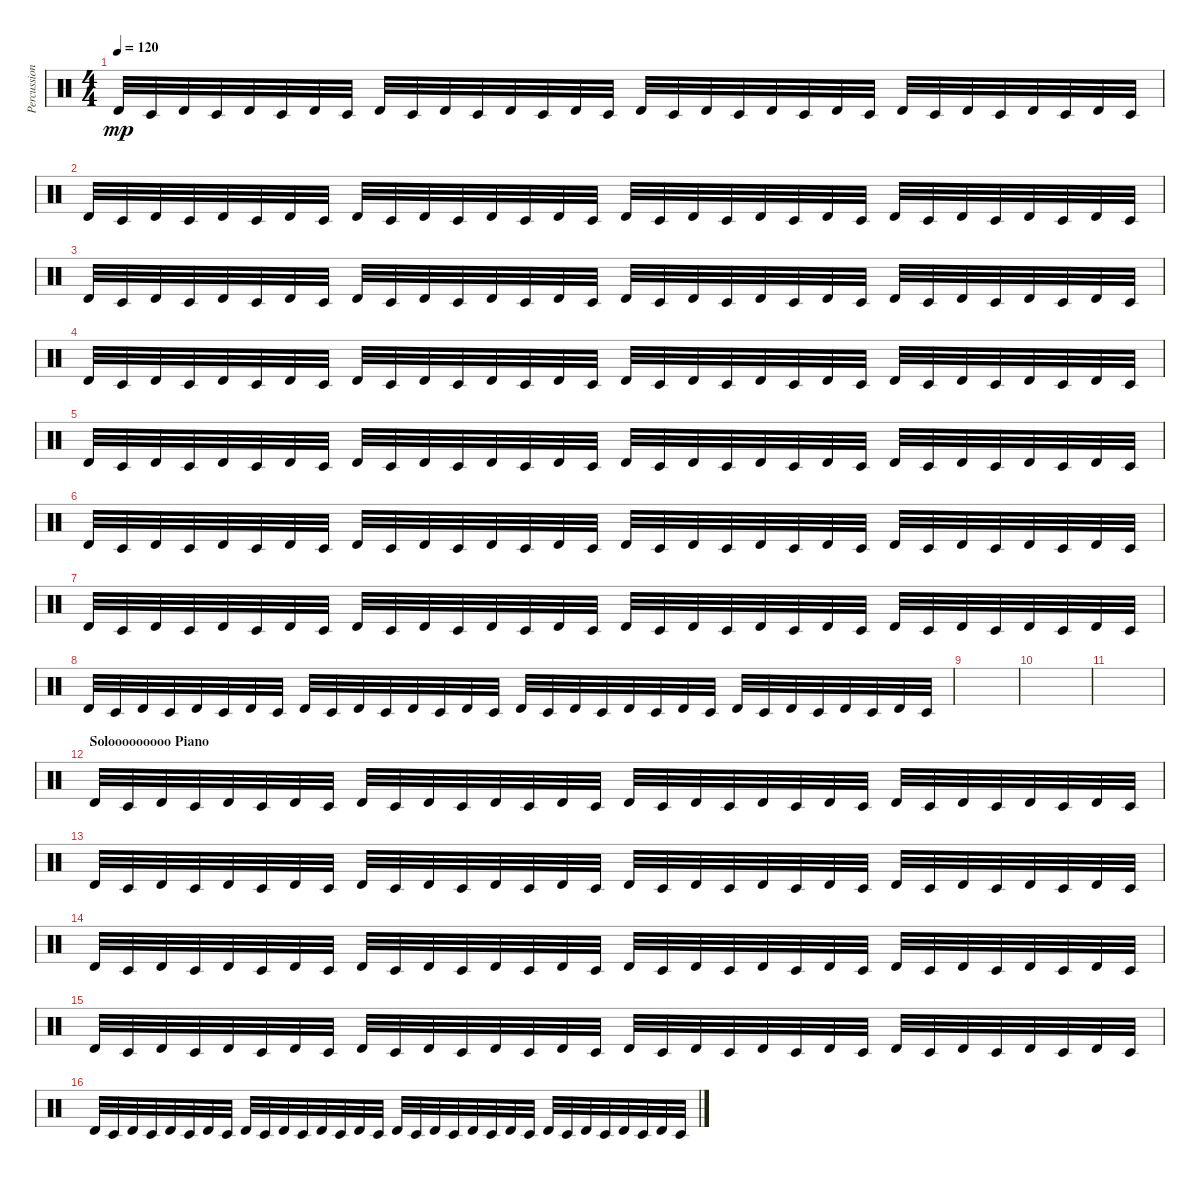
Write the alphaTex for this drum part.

\track ("Percussion" "Percussion") {instrument percussion}
\staff {score}
\articulation defaults
\ts (4 4)
\tempo 120
\clef neutral
\ks c "Timbale high (hit)".32{dy mp} "Timbale low (hit)".32 "Timbale high (hit)".32 "Timbale low (hit)".32 "Timbale high (hit)".32 "Timbale low (hit)".32 "Timbale high (hit)".32 "Timbale low (hit)".32 "Timbale high (hit)".32 "Timbale low (hit)".32 "Timbale high (hit)".32 "Timbale low (hit)".32 "Timbale high (hit)".32 "Timbale low (hit)".32 "Timbale high (hit)".32 "Timbale low (hit)".32 "Timbale high (hit)".32 "Timbale low (hit)".32 "Timbale high (hit)".32 "Timbale low (hit)".32 "Timbale high (hit)".32 "Timbale low (hit)".32 "Timbale high (hit)".32 "Timbale low (hit)".32 "Timbale high (hit)".32 "Timbale low (hit)".32 "Timbale high (hit)".32 "Timbale low (hit)".32 "Timbale high (hit)".32 "Timbale low (hit)".32 "Timbale high (hit)".32 "Timbale low (hit)".32
|
"Timbale high (hit)".32 "Timbale low (hit)".32 "Timbale high (hit)".32 "Timbale low (hit)".32 "Timbale high (hit)".32 "Timbale low (hit)".32 "Timbale high (hit)".32 "Timbale low (hit)".32 "Timbale high (hit)".32 "Timbale low (hit)".32 "Timbale high (hit)".32 "Timbale low (hit)".32 "Timbale high (hit)".32 "Timbale low (hit)".32 "Timbale high (hit)".32 "Timbale low (hit)".32 "Timbale high (hit)".32 "Timbale low (hit)".32 "Timbale high (hit)".32 "Timbale low (hit)".32 "Timbale high (hit)".32 "Timbale low (hit)".32 "Timbale high (hit)".32 "Timbale low (hit)".32 "Timbale high (hit)".32 "Timbale low (hit)".32 "Timbale high (hit)".32 "Timbale low (hit)".32 "Timbale high (hit)".32 "Timbale low (hit)".32 "Timbale high (hit)".32 "Timbale low (hit)".32 |
"Timbale high (hit)".32 "Timbale low (hit)".32 "Timbale high (hit)".32 "Timbale low (hit)".32 "Timbale high (hit)".32 "Timbale low (hit)".32 "Timbale high (hit)".32 "Timbale low (hit)".32 "Timbale high (hit)".32 "Timbale low (hit)".32 "Timbale high (hit)".32 "Timbale low (hit)".32 "Timbale high (hit)".32 "Timbale low (hit)".32 "Timbale high (hit)".32 "Timbale low (hit)".32 "Timbale high (hit)".32 "Timbale low (hit)".32 "Timbale high (hit)".32 "Timbale low (hit)".32 "Timbale high (hit)".32 "Timbale low (hit)".32 "Timbale high (hit)".32 "Timbale low (hit)".32 "Timbale high (hit)".32 "Timbale low (hit)".32 "Timbale high (hit)".32 "Timbale low (hit)".32 "Timbale high (hit)".32 "Timbale low (hit)".32 "Timbale high (hit)".32 "Timbale low (hit)".32 |
"Timbale high (hit)".32 "Timbale low (hit)".32 "Timbale high (hit)".32 "Timbale low (hit)".32 "Timbale high (hit)".32 "Timbale low (hit)".32 "Timbale high (hit)".32 "Timbale low (hit)".32 "Timbale high (hit)".32 "Timbale low (hit)".32 "Timbale high (hit)".32 "Timbale low (hit)".32 "Timbale high (hit)".32 "Timbale low (hit)".32 "Timbale high (hit)".32 "Timbale low (hit)".32 "Timbale high (hit)".32 "Timbale low (hit)".32 "Timbale high (hit)".32 "Timbale low (hit)".32 "Timbale high (hit)".32 "Timbale low (hit)".32 "Timbale high (hit)".32 "Timbale low (hit)".32 "Timbale high (hit)".32 "Timbale low (hit)".32 "Timbale high (hit)".32 "Timbale low (hit)".32 "Timbale high (hit)".32 "Timbale low (hit)".32 "Timbale high (hit)".32 "Timbale low (hit)".32 |
"Timbale high (hit)".32 "Timbale low (hit)".32 "Timbale high (hit)".32 "Timbale low (hit)".32 "Timbale high (hit)".32 "Timbale low (hit)".32 "Timbale high (hit)".32 "Timbale low (hit)".32 "Timbale high (hit)".32 "Timbale low (hit)".32 "Timbale high (hit)".32 "Timbale low (hit)".32 "Timbale high (hit)".32 "Timbale low (hit)".32 "Timbale high (hit)".32 "Timbale low (hit)".32 "Timbale high (hit)".32 "Timbale low (hit)".32 "Timbale high (hit)".32 "Timbale low (hit)".32 "Timbale high (hit)".32 "Timbale low (hit)".32 "Timbale high (hit)".32 "Timbale low (hit)".32 "Timbale high (hit)".32 "Timbale low (hit)".32 "Timbale high (hit)".32 "Timbale low (hit)".32 "Timbale high (hit)".32 "Timbale low (hit)".32 "Timbale high (hit)".32 "Timbale low (hit)".32 |
"Timbale high (hit)".32 "Timbale low (hit)".32 "Timbale high (hit)".32 "Timbale low (hit)".32 "Timbale high (hit)".32 "Timbale low (hit)".32 "Timbale high (hit)".32 "Timbale low (hit)".32 "Timbale high (hit)".32 "Timbale low (hit)".32 "Timbale high (hit)".32 "Timbale low (hit)".32 "Timbale high (hit)".32 "Timbale low (hit)".32 "Timbale high (hit)".32 "Timbale low (hit)".32 "Timbale high (hit)".32 "Timbale low (hit)".32 "Timbale high (hit)".32 "Timbale low (hit)".32 "Timbale high (hit)".32 "Timbale low (hit)".32 "Timbale high (hit)".32 "Timbale low (hit)".32 "Timbale high (hit)".32 "Timbale low (hit)".32 "Timbale high (hit)".32 "Timbale low (hit)".32 "Timbale high (hit)".32 "Timbale low (hit)".32 "Timbale high (hit)".32 "Timbale low (hit)".32 |
"Timbale high (hit)".32 "Timbale low (hit)".32 "Timbale high (hit)".32 "Timbale low (hit)".32 "Timbale high (hit)".32 "Timbale low (hit)".32 "Timbale high (hit)".32 "Timbale low (hit)".32 "Timbale high (hit)".32 "Timbale low (hit)".32 "Timbale high (hit)".32 "Timbale low (hit)".32 "Timbale high (hit)".32 "Timbale low (hit)".32 "Timbale high (hit)".32 "Timbale low (hit)".32 "Timbale high (hit)".32 "Timbale low (hit)".32 "Timbale high (hit)".32 "Timbale low (hit)".32 "Timbale high (hit)".32 "Timbale low (hit)".32 "Timbale high (hit)".32 "Timbale low (hit)".32 "Timbale high (hit)".32 "Timbale low (hit)".32 "Timbale high (hit)".32 "Timbale low (hit)".32 "Timbale high (hit)".32 "Timbale low (hit)".32 "Timbale high (hit)".32 "Timbale low (hit)".32 |
"Timbale high (hit)".32 "Timbale low (hit)".32 "Timbale high (hit)".32 "Timbale low (hit)".32 "Timbale high (hit)".32 "Timbale low (hit)".32 "Timbale high (hit)".32 "Timbale low (hit)".32 "Timbale high (hit)".32 "Timbale low (hit)".32 "Timbale high (hit)".32 "Timbale low (hit)".32 "Timbale high (hit)".32 "Timbale low (hit)".32 "Timbale high (hit)".32 "Timbale low (hit)".32 "Timbale high (hit)".32 "Timbale low (hit)".32 "Timbale high (hit)".32 "Timbale low (hit)".32 "Timbale high (hit)".32 "Timbale low (hit)".32 "Timbale high (hit)".32 "Timbale low (hit)".32 "Timbale high (hit)".32 "Timbale low (hit)".32 "Timbale high (hit)".32 "Timbale low (hit)".32 "Timbale high (hit)".32 "Timbale low (hit)".32 "Timbale high (hit)".32 "Timbale low (hit)".32 |
|
|
|
\section ("" "Solooooooooo Piano")
"Timbale high (hit)".32 "Timbale low (hit)".32 "Timbale high (hit)".32 "Timbale low (hit)".32 "Timbale high (hit)".32 "Timbale low (hit)".32 "Timbale high (hit)".32 "Timbale low (hit)".32 "Timbale high (hit)".32 "Timbale low (hit)".32 "Timbale high (hit)".32 "Timbale low (hit)".32 "Timbale high (hit)".32 "Timbale low (hit)".32 "Timbale high (hit)".32 "Timbale low (hit)".32 "Timbale high (hit)".32 "Timbale low (hit)".32 "Timbale high (hit)".32 "Timbale low (hit)".32 "Timbale high (hit)".32 "Timbale low (hit)".32 "Timbale high (hit)".32 "Timbale low (hit)".32 "Timbale high (hit)".32 "Timbale low (hit)".32 "Timbale high (hit)".32 "Timbale low (hit)".32 "Timbale high (hit)".32 "Timbale low (hit)".32 "Timbale high (hit)".32 "Timbale low (hit)".32 |
"Timbale high (hit)".32 "Timbale low (hit)".32 "Timbale high (hit)".32 "Timbale low (hit)".32 "Timbale high (hit)".32 "Timbale low (hit)".32 "Timbale high (hit)".32 "Timbale low (hit)".32 "Timbale high (hit)".32 "Timbale low (hit)".32 "Timbale high (hit)".32 "Timbale low (hit)".32 "Timbale high (hit)".32 "Timbale low (hit)".32 "Timbale high (hit)".32 "Timbale low (hit)".32 "Timbale high (hit)".32 "Timbale low (hit)".32 "Timbale high (hit)".32 "Timbale low (hit)".32 "Timbale high (hit)".32 "Timbale low (hit)".32 "Timbale high (hit)".32 "Timbale low (hit)".32 "Timbale high (hit)".32 "Timbale low (hit)".32 "Timbale high (hit)".32 "Timbale low (hit)".32 "Timbale high (hit)".32 "Timbale low (hit)".32 "Timbale high (hit)".32 "Timbale low (hit)".32 |
"Timbale high (hit)".32 "Timbale low (hit)".32 "Timbale high (hit)".32 "Timbale low (hit)".32 "Timbale high (hit)".32 "Timbale low (hit)".32 "Timbale high (hit)".32 "Timbale low (hit)".32 "Timbale high (hit)".32 "Timbale low (hit)".32 "Timbale high (hit)".32 "Timbale low (hit)".32 "Timbale high (hit)".32 "Timbale low (hit)".32 "Timbale high (hit)".32 "Timbale low (hit)".32 "Timbale high (hit)".32 "Timbale low (hit)".32 "Timbale high (hit)".32 "Timbale low (hit)".32 "Timbale high (hit)".32 "Timbale low (hit)".32 "Timbale high (hit)".32 "Timbale low (hit)".32 "Timbale high (hit)".32 "Timbale low (hit)".32 "Timbale high (hit)".32 "Timbale low (hit)".32 "Timbale high (hit)".32 "Timbale low (hit)".32 "Timbale high (hit)".32 "Timbale low (hit)".32 |
"Timbale high (hit)".32 "Timbale low (hit)".32 "Timbale high (hit)".32 "Timbale low (hit)".32 "Timbale high (hit)".32 "Timbale low (hit)".32 "Timbale high (hit)".32 "Timbale low (hit)".32 "Timbale high (hit)".32 "Timbale low (hit)".32 "Timbale high (hit)".32 "Timbale low (hit)".32 "Timbale high (hit)".32 "Timbale low (hit)".32 "Timbale high (hit)".32 "Timbale low (hit)".32 "Timbale high (hit)".32 "Timbale low (hit)".32 "Timbale high (hit)".32 "Timbale low (hit)".32 "Timbale high (hit)".32 "Timbale low (hit)".32 "Timbale high (hit)".32 "Timbale low (hit)".32 "Timbale high (hit)".32 "Timbale low (hit)".32 "Timbale high (hit)".32 "Timbale low (hit)".32 "Timbale high (hit)".32 "Timbale low (hit)".32 "Timbale high (hit)".32 "Timbale low (hit)".32 |
"Timbale high (hit)".32 "Timbale low (hit)".32 "Timbale high (hit)".32 "Timbale low (hit)".32 "Timbale high (hit)".32 "Timbale low (hit)".32 "Timbale high (hit)".32 "Timbale low (hit)".32 "Timbale high (hit)".32 "Timbale low (hit)".32 "Timbale high (hit)".32 "Timbale low (hit)".32 "Timbale high (hit)".32 "Timbale low (hit)".32 "Timbale high (hit)".32 "Timbale low (hit)".32 "Timbale high (hit)".32 "Timbale low (hit)".32 "Timbale high (hit)".32 "Timbale low (hit)".32 "Timbale high (hit)".32 "Timbale low (hit)".32 "Timbale high (hit)".32 "Timbale low (hit)".32 "Timbale high (hit)".32 "Timbale low (hit)".32 "Timbale high (hit)".32 "Timbale low (hit)".32 "Timbale high (hit)".32 "Timbale low (hit)".32 "Timbale high (hit)".32 "Timbale low (hit)".32
